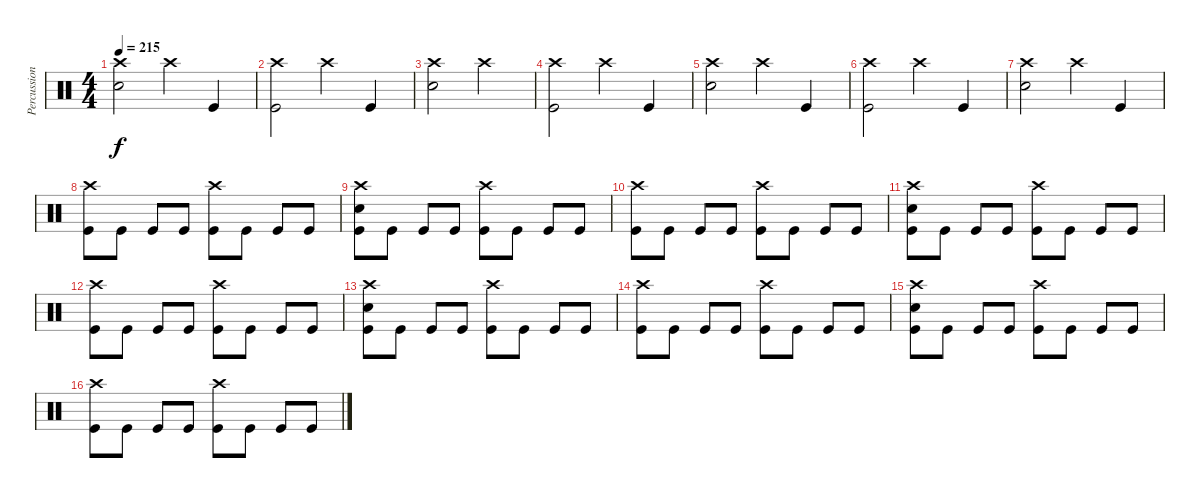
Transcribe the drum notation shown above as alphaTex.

\track ("Percussion" "Percussion") {instrument percussion}
\staff {score}
\articulation defaults
\ts (4 4)
\tempo 215
\clef neutral
\ks c
("Crash high (hit)" "Electric Snare (hit)").2{dy f} "Crash high (hit)".4 "Kick (hit)".4 |
("Crash high (hit)" "Kick (hit)").2 "Crash high (hit)".4 "Kick (hit)".4 |
("Crash high (hit)" "Electric Snare (hit)").2 "Crash high (hit)".2 |
("Crash high (hit)" "Kick (hit)").2 "Crash high (hit)".4 "Kick (hit)".4 |
("Crash high (hit)" "Electric Snare (hit)").2 "Crash high (hit)".4 "Kick (hit)".4 |
("Crash high (hit)" "Kick (hit)").2 "Crash high (hit)".4 "Kick (hit)".4 |
("Crash high (hit)" "Electric Snare (hit)").2 "Crash high (hit)".4 "Kick (hit)".4 |
("Crash high (hit)" "Kick (hit)").8 "Kick (hit)".8 "Kick (hit)".8 "Kick (hit)".8 ("Crash high (hit)" "Kick (hit)").8 "Kick (hit)".8 "Kick (hit)".8 "Kick (hit)".8 |
("Crash high (hit)" "Electric Snare (hit)" "Kick (hit)").8 "Kick (hit)".8 "Kick (hit)".8 "Kick (hit)".8 ("Crash high (hit)" "Kick (hit)").8 "Kick (hit)".8 "Kick (hit)".8 "Kick (hit)".8 |
("Crash high (hit)" "Kick (hit)").8 "Kick (hit)".8 "Kick (hit)".8 "Kick (hit)".8 ("Crash high (hit)" "Kick (hit)").8 "Kick (hit)".8 "Kick (hit)".8 "Kick (hit)".8 |
("Crash high (hit)" "Electric Snare (hit)" "Kick (hit)").8 "Kick (hit)".8 "Kick (hit)".8 "Kick (hit)".8 ("Crash high (hit)" "Kick (hit)").8 "Kick (hit)".8 "Kick (hit)".8 "Kick (hit)".8 |
("Crash high (hit)" "Kick (hit)").8 "Kick (hit)".8 "Kick (hit)".8 "Kick (hit)".8 ("Crash high (hit)" "Kick (hit)").8 "Kick (hit)".8 "Kick (hit)".8 "Kick (hit)".8 |
("Crash high (hit)" "Electric Snare (hit)" "Kick (hit)").8 "Kick (hit)".8 "Kick (hit)".8 "Kick (hit)".8 ("Crash high (hit)" "Kick (hit)").8 "Kick (hit)".8 "Kick (hit)".8 "Kick (hit)".8 |
("Crash high (hit)" "Kick (hit)").8 "Kick (hit)".8 "Kick (hit)".8 "Kick (hit)".8 ("Crash high (hit)" "Kick (hit)").8 "Kick (hit)".8 "Kick (hit)".8 "Kick (hit)".8 |
("Crash high (hit)" "Electric Snare (hit)" "Kick (hit)").8 "Kick (hit)".8 "Kick (hit)".8 "Kick (hit)".8 ("Crash high (hit)" "Kick (hit)").8 "Kick (hit)".8 "Kick (hit)".8 "Kick (hit)".8 |
("Crash high (hit)" "Kick (hit)").8 "Kick (hit)".8 "Kick (hit)".8 "Kick (hit)".8 ("Crash high (hit)" "Kick (hit)").8 "Kick (hit)".8 "Kick (hit)".8 "Kick (hit)".8
